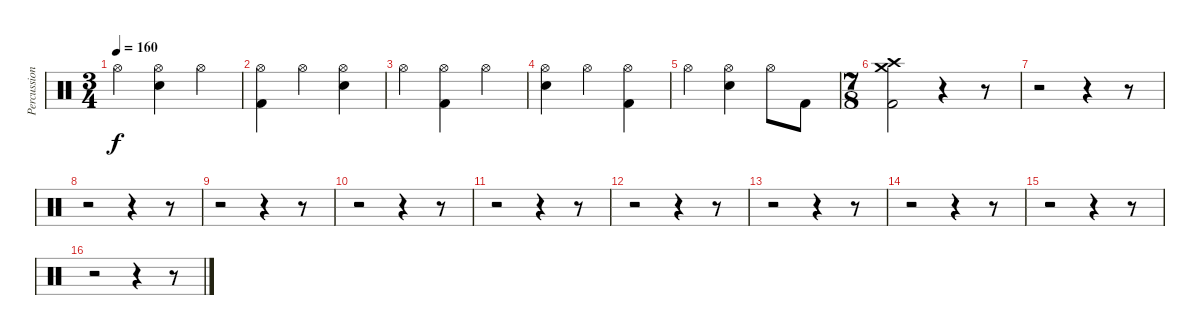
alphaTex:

\track ("Percussion" "Percussion") {instrument percussion}
\staff {score}
\articulation defaults
\ts (3 4)
\tempo 160
\clef neutral
\ks c "Hi-Hat (open)".4{dy f}
("Hi-Hat (open)" "Snare (hit) 2").4 "Hi-Hat (open)".4 |
("Hi-Hat (open)" "Kick (hit) 2").4 "Hi-Hat (open)".4 ("Hi-Hat (open)" "Snare (hit) 2").4 |
"Hi-Hat (open)".4 ("Hi-Hat (open)" "Kick (hit) 2").4 "Hi-Hat (open)".4 |
("Hi-Hat (open)" "Snare (hit) 2").4 "Hi-Hat (open)".4 ("Hi-Hat (open)" "Kick (hit) 2").4 |
"Hi-Hat (open)".4 ("Hi-Hat (open)" "Snare (hit) 2").4 "Hi-Hat (open)".8 "Kick (hit) 2".8 |
\ts (7 8)
("Crash medium (hit)" "Crash high (hit)" "Kick (hit) 2").2 r.4 r.8 |
r.2 r.4 r.8 |
r.2 r.4 r.8 |
r.2 r.4 r.8 |
r.2 r.4 r.8 |
r.2 r.4 r.8 |
r.2 r.4 r.8 |
r.2 r.4 r.8 |
r.2 r.4 r.8 |
r.2 r.4 r.8 |
r.2 r.4 r.8
